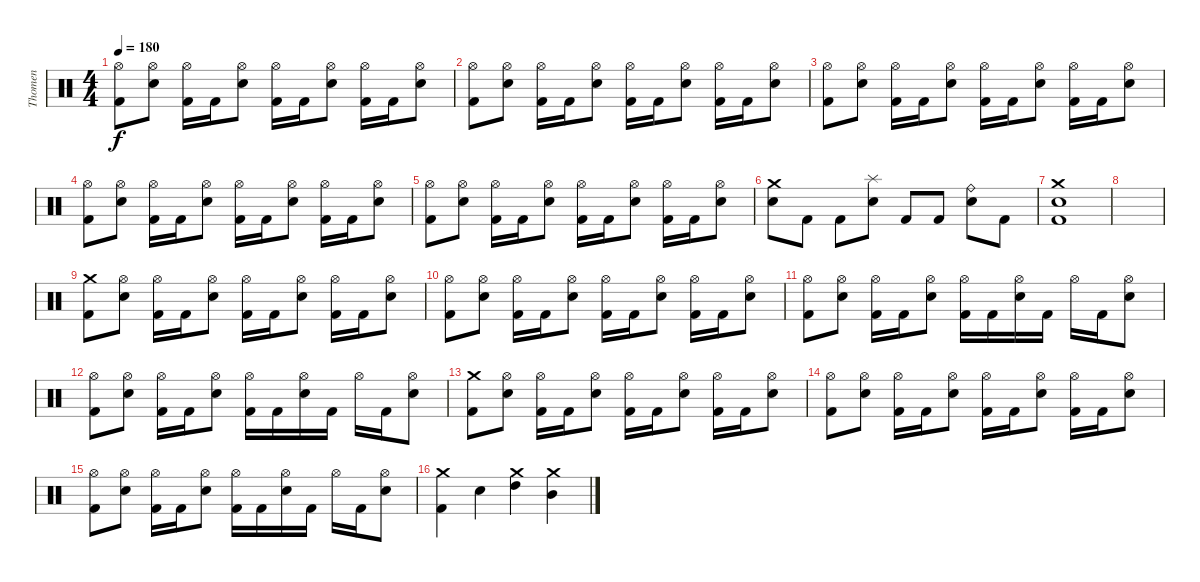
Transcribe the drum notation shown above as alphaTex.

\track ("Thomen" "Thomen") {instrument percussion}
\staff {score}
\articulation defaults
\ts (4 4)
\tempo 180
\clef neutral
\ks c
("Hi-Hat (open)" "Kick (hit) 2").8{dy f} ("Hi-Hat (open)" "Electric Snare (hit)").8 ("Hi-Hat (open)" "Kick (hit) 2").16 "Kick (hit) 2".16 ("Hi-Hat (open)" "Electric Snare (hit)").8 ("Hi-Hat (open)" "Kick (hit) 2").16 "Kick (hit) 2".16 ("Hi-Hat (open)" "Electric Snare (hit)").8 ("Hi-Hat (open)" "Kick (hit) 2").16 "Kick (hit) 2".16 ("Hi-Hat (open)" "Electric Snare (hit)").8 |
("Hi-Hat (open)" "Kick (hit) 2").8 ("Hi-Hat (open)" "Electric Snare (hit)").8 ("Hi-Hat (open)" "Kick (hit) 2").16 "Kick (hit) 2".16 ("Hi-Hat (open)" "Electric Snare (hit)").8 ("Hi-Hat (open)" "Kick (hit) 2").16 "Kick (hit) 2".16 ("Hi-Hat (open)" "Electric Snare (hit)").8 ("Hi-Hat (open)" "Kick (hit) 2").16 "Kick (hit) 2".16 ("Hi-Hat (open)" "Electric Snare (hit)").8 |
("Hi-Hat (open)" "Kick (hit) 2").8 ("Hi-Hat (open)" "Electric Snare (hit)").8 ("Hi-Hat (open)" "Kick (hit) 2").16 "Kick (hit) 2".16 ("Hi-Hat (open)" "Electric Snare (hit)").8 ("Hi-Hat (open)" "Kick (hit) 2").16 "Kick (hit) 2".16 ("Hi-Hat (open)" "Electric Snare (hit)").8 ("Hi-Hat (open)" "Kick (hit) 2").16 "Kick (hit) 2".16 ("Hi-Hat (open)" "Electric Snare (hit)").8 |
("Hi-Hat (open)" "Kick (hit) 2").8 ("Hi-Hat (open)" "Electric Snare (hit)").8 ("Hi-Hat (open)" "Kick (hit) 2").16 "Kick (hit) 2".16 ("Hi-Hat (open)" "Electric Snare (hit)").8 ("Hi-Hat (open)" "Kick (hit) 2").16 "Kick (hit) 2".16 ("Hi-Hat (open)" "Electric Snare (hit)").8 ("Hi-Hat (open)" "Kick (hit) 2").16 "Kick (hit) 2".16 ("Hi-Hat (open)" "Electric Snare (hit)").8 |
("Hi-Hat (open)" "Kick (hit) 2").8 ("Hi-Hat (open)" "Electric Snare (hit)").8 ("Hi-Hat (open)" "Kick (hit) 2").16 "Kick (hit) 2".16 ("Hi-Hat (open)" "Electric Snare (hit)").8 ("Hi-Hat (open)" "Kick (hit) 2").16 "Kick (hit) 2".16 ("Hi-Hat (open)" "Electric Snare (hit)").8 ("Hi-Hat (open)" "Kick (hit) 2").16 "Kick (hit) 2".16 ("Hi-Hat (open)" "Electric Snare (hit)").8 |
("Crash medium (hit)" "Electric Snare (hit)").8 "Kick (hit) 2".8 "Kick (hit) 2".8 ("Splash (hit)" "Electric Snare (hit)").8 "Kick (hit) 2".8 "Kick (hit) 2".8 ("Ride (bell)" "Electric Snare (hit)").8 "Kick (hit) 2".8 |
("Crash medium (hit)" "Electric Snare (hit)" "Kick (hit) 2").1 |
|
("Crash medium (hit)" "Kick (hit) 2").8 ("Hi-Hat (open)" "Electric Snare (hit)").8 ("Hi-Hat (open)" "Kick (hit) 2").16 "Kick (hit) 2".16 ("Hi-Hat (open)" "Electric Snare (hit)").8 ("Hi-Hat (open)" "Kick (hit) 2").16 "Kick (hit) 2".16 ("Hi-Hat (open)" "Electric Snare (hit)").8 ("Hi-Hat (open)" "Kick (hit) 2").16 "Kick (hit) 2".16 ("Hi-Hat (open)" "Electric Snare (hit)").8 |
("Hi-Hat (open)" "Kick (hit) 2").8 ("Hi-Hat (open)" "Electric Snare (hit)").8 ("Hi-Hat (open)" "Kick (hit) 2").16 "Kick (hit) 2".16 ("Hi-Hat (open)" "Electric Snare (hit)").8 ("Hi-Hat (open)" "Kick (hit) 2").16 "Kick (hit) 2".16 ("Hi-Hat (open)" "Electric Snare (hit)").8 ("Hi-Hat (open)" "Kick (hit) 2").16 "Kick (hit) 2".16 ("Hi-Hat (open)" "Electric Snare (hit)").8 |
("Hi-Hat (open)" "Kick (hit) 2").8 ("Hi-Hat (open)" "Electric Snare (hit)").8 ("Hi-Hat (open)" "Kick (hit) 2").16 "Kick (hit) 2".16 ("Hi-Hat (open)" "Electric Snare (hit)").8 ("Hi-Hat (open)" "Kick (hit) 2").16 "Kick (hit) 2".16 ("Hi-Hat (open)" "Electric Snare (hit)").16 "Kick (hit) 2".16 "Hi-Hat (open)".16 "Kick (hit) 2".16 ("Hi-Hat (open)" "Electric Snare (hit)").8 |
("Hi-Hat (open)" "Kick (hit) 2").8 ("Hi-Hat (open)" "Electric Snare (hit)").8 ("Hi-Hat (open)" "Kick (hit) 2").16 "Kick (hit) 2".16 ("Hi-Hat (open)" "Electric Snare (hit)").8 ("Hi-Hat (open)" "Kick (hit) 2").16 "Kick (hit) 2".16 ("Hi-Hat (open)" "Electric Snare (hit)").16 "Kick (hit) 2".16 "Hi-Hat (open)".16 "Kick (hit) 2".16 ("Hi-Hat (open)" "Electric Snare (hit)").8 |
("Crash medium (hit)" "Kick (hit) 2").8 ("Hi-Hat (open)" "Electric Snare (hit)").8 ("Hi-Hat (open)" "Kick (hit) 2").16 "Kick (hit) 2".16 ("Hi-Hat (open)" "Electric Snare (hit)").8 ("Hi-Hat (open)" "Kick (hit) 2").16 "Kick (hit) 2".16 ("Hi-Hat (open)" "Electric Snare (hit)").8 ("Hi-Hat (open)" "Kick (hit) 2").16 "Kick (hit) 2".16 ("Hi-Hat (open)" "Electric Snare (hit)").8 |
("Hi-Hat (open)" "Kick (hit) 2").8 ("Hi-Hat (open)" "Electric Snare (hit)").8 ("Hi-Hat (open)" "Kick (hit) 2").16 "Kick (hit) 2".16 ("Hi-Hat (open)" "Electric Snare (hit)").8 ("Hi-Hat (open)" "Kick (hit) 2").16 "Kick (hit) 2".16 ("Hi-Hat (open)" "Electric Snare (hit)").8 ("Hi-Hat (open)" "Kick (hit) 2").16 "Kick (hit) 2".16 ("Hi-Hat (open)" "Electric Snare (hit)").8 |
("Hi-Hat (open)" "Kick (hit) 2").8 ("Hi-Hat (open)" "Electric Snare (hit)").8 ("Hi-Hat (open)" "Kick (hit) 2").16 "Kick (hit) 2".16 ("Hi-Hat (open)" "Electric Snare (hit)").8 ("Hi-Hat (open)" "Kick (hit) 2").16 "Kick (hit) 2".16 ("Hi-Hat (open)" "Electric Snare (hit)").16 "Kick (hit) 2".16 "Hi-Hat (open)".16 "Kick (hit) 2".16 ("Hi-Hat (open)" "Electric Snare (hit)").8 |
("Crash medium (hit)" "Kick (hit) 2").4 "Electric Snare (hit)".4 ("Crash medium (hit)" "High Tom (hit)").4 ("Crash medium (hit)" "Mid Tom (hit)").4
